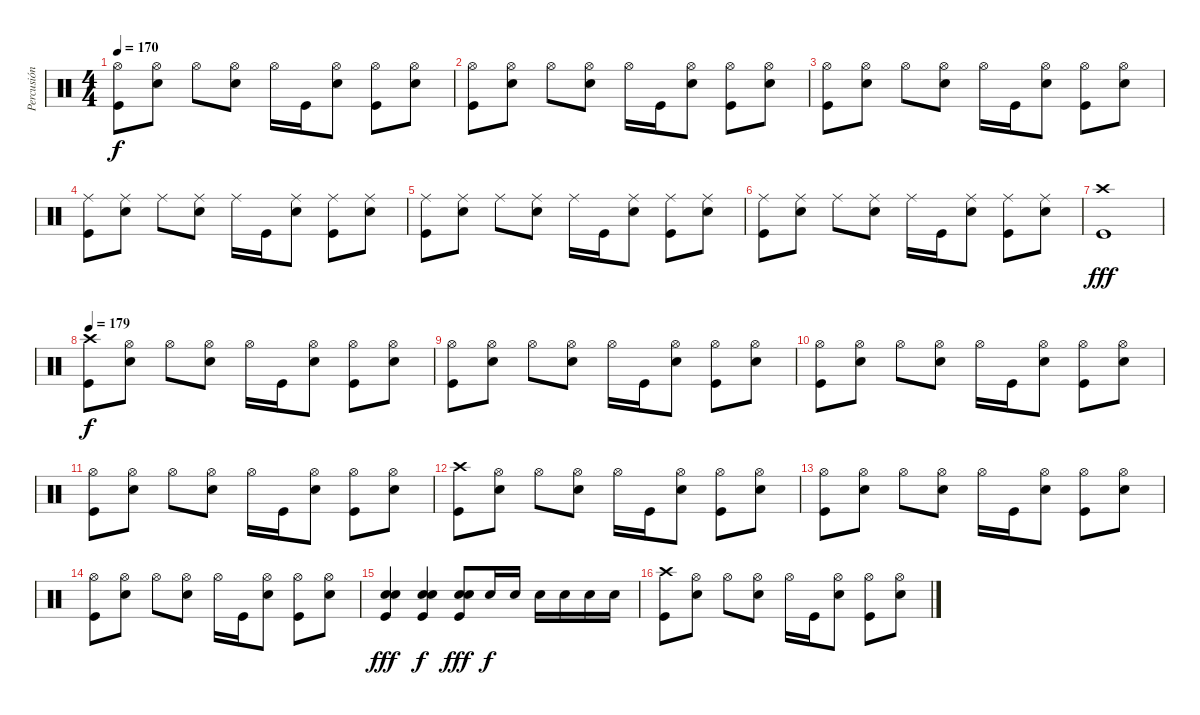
\track ("Percusión" "Percusión") {instrument percussion}
\staff {score}
\articulation defaults
\ts (4 4)
\tempo 170
\clef neutral
\ks c
("Hi-Hat (open)" "Kick (hit)").8{dy f} ("Hi-Hat (open)" "Snare (hit) 2").8 "Hi-Hat (open)".8 ("Hi-Hat (open)" "Snare (hit) 2").8 "Hi-Hat (open)".16 "Kick (hit)".16 ("Hi-Hat (open)" "Snare (hit) 2").8 ("Hi-Hat (open)" "Kick (hit)").8 ("Hi-Hat (open)" "Snare (hit) 2").8 |
("Hi-Hat (open)" "Kick (hit)").8 ("Hi-Hat (open)" "Snare (hit) 2").8 "Hi-Hat (open)".8 ("Hi-Hat (open)" "Snare (hit) 2").8 "Hi-Hat (open)".16 "Kick (hit)".16 ("Hi-Hat (open)" "Snare (hit) 2").8 ("Hi-Hat (open)" "Kick (hit)").8 ("Hi-Hat (open)" "Snare (hit) 2").8 |
("Hi-Hat (open)" "Kick (hit)").8 ("Hi-Hat (open)" "Snare (hit) 2").8 "Hi-Hat (open)".8 ("Hi-Hat (open)" "Snare (hit) 2").8 "Hi-Hat (open)".16 "Kick (hit)".16 ("Hi-Hat (open)" "Snare (hit) 2").8 ("Hi-Hat (open)" "Kick (hit)").8 ("Hi-Hat (open)" "Snare (hit) 2").8 |
("Ride (middle)" "Kick (hit)").8 ("Ride (middle)" "Snare (hit) 2").8 "Ride (middle)".8 ("Ride (middle)" "Snare (hit) 2").8 "Ride (middle)".16 "Kick (hit)".16 ("Ride (middle)" "Snare (hit) 2").8 ("Ride (middle)" "Kick (hit)").8 ("Ride (middle)" "Snare (hit) 2").8 |
("Ride (middle)" "Kick (hit)").8 ("Ride (middle)" "Snare (hit) 2").8 "Ride (middle)".8 ("Ride (middle)" "Snare (hit) 2").8 "Ride (middle)".16 "Kick (hit)".16 ("Ride (middle)" "Snare (hit) 2").8 ("Ride (middle)" "Kick (hit)").8 ("Ride (middle)" "Snare (hit) 2").8 |
("Ride (middle)" "Kick (hit)").8 ("Ride (middle)" "Snare (hit) 2").8 "Ride (middle)".8 ("Ride (middle)" "Snare (hit) 2").8 "Ride (middle)".16 "Kick (hit)".16 ("Ride (middle)" "Snare (hit) 2").8 ("Ride (middle)" "Kick (hit)").8 ("Ride (middle)" "Snare (hit) 2").8 |
("Crash high (hit)" "Kick (hit)").1{dy fff} |
\tempo 179
("Crash high (hit)" "Kick (hit)").8{dy f} ("Hi-Hat (open)" "Snare (hit) 2").8 "Hi-Hat (open)".8 ("Hi-Hat (open)" "Snare (hit) 2").8 "Hi-Hat (open)".16 "Kick (hit)".16 ("Hi-Hat (open)" "Snare (hit) 2").8 ("Hi-Hat (open)" "Kick (hit)").8 ("Hi-Hat (open)" "Snare (hit) 2").8 |
("Hi-Hat (open)" "Kick (hit)").8 ("Hi-Hat (open)" "Snare (hit) 2").8 "Hi-Hat (open)".8 ("Hi-Hat (open)" "Snare (hit) 2").8 "Hi-Hat (open)".16 "Kick (hit)".16 ("Hi-Hat (open)" "Snare (hit) 2").8 ("Hi-Hat (open)" "Kick (hit)").8 ("Hi-Hat (open)" "Snare (hit) 2").8 |
("Hi-Hat (open)" "Kick (hit)").8 ("Hi-Hat (open)" "Snare (hit) 2").8 "Hi-Hat (open)".8 ("Hi-Hat (open)" "Snare (hit) 2").8 "Hi-Hat (open)".16 "Kick (hit)".16 ("Hi-Hat (open)" "Snare (hit) 2").8 ("Hi-Hat (open)" "Kick (hit)").8 ("Hi-Hat (open)" "Snare (hit) 2").8 |
("Hi-Hat (open)" "Kick (hit)").8 ("Hi-Hat (open)" "Snare (hit) 2").8 "Hi-Hat (open)".8 ("Hi-Hat (open)" "Snare (hit) 2").8 "Hi-Hat (open)".16 "Kick (hit)".16 ("Hi-Hat (open)" "Snare (hit) 2").8 ("Hi-Hat (open)" "Kick (hit)").8 ("Hi-Hat (open)" "Snare (hit) 2").8 |
("Crash high (hit)" "Kick (hit)").8 ("Hi-Hat (open)" "Snare (hit) 2").8 "Hi-Hat (open)".8 ("Hi-Hat (open)" "Snare (hit) 2").8 "Hi-Hat (open)".16 "Kick (hit)".16 ("Hi-Hat (open)" "Snare (hit) 2").8 ("Hi-Hat (open)" "Kick (hit)").8 ("Hi-Hat (open)" "Snare (hit) 2").8 |
("Hi-Hat (open)" "Kick (hit)").8 ("Hi-Hat (open)" "Snare (hit) 2").8 "Hi-Hat (open)".8 ("Hi-Hat (open)" "Snare (hit) 2").8 "Hi-Hat (open)".16 "Kick (hit)".16 ("Hi-Hat (open)" "Snare (hit) 2").8 ("Hi-Hat (open)" "Kick (hit)").8 ("Hi-Hat (open)" "Snare (hit) 2").8 |
("Hi-Hat (open)" "Kick (hit)").8 ("Hi-Hat (open)" "Snare (hit) 2").8 "Hi-Hat (open)".8 ("Hi-Hat (open)" "Snare (hit) 2").8 "Hi-Hat (open)".16 "Kick (hit)".16 ("Hi-Hat (open)" "Snare (hit) 2").8 ("Hi-Hat (open)" "Kick (hit)").8 ("Hi-Hat (open)" "Snare (hit) 2").8 |
("Snare (hit) 2" "Snare (hit) 2" "Kick (hit)").4{dy fff} ("Snare (hit) 2" "Snare (hit) 2" "Kick (hit)").4{dy f} ("Snare (hit) 2" "Snare (hit) 2" "Kick (hit)").8{dy fff} "Snare (hit) 2".16{dy f} "Snare (hit) 2".16 "Snare (hit) 2".16 "Snare (hit) 2".16 "Snare (hit) 2".16 "Snare (hit) 2".16 |
("Crash high (hit)" "Kick (hit)").8 ("Hi-Hat (open)" "Snare (hit) 2").8 "Hi-Hat (open)".8 ("Hi-Hat (open)" "Snare (hit) 2").8 "Hi-Hat (open)".16 "Kick (hit)".16 ("Hi-Hat (open)" "Snare (hit) 2").8 ("Hi-Hat (open)" "Kick (hit)").8 ("Hi-Hat (open)" "Snare (hit) 2").8
